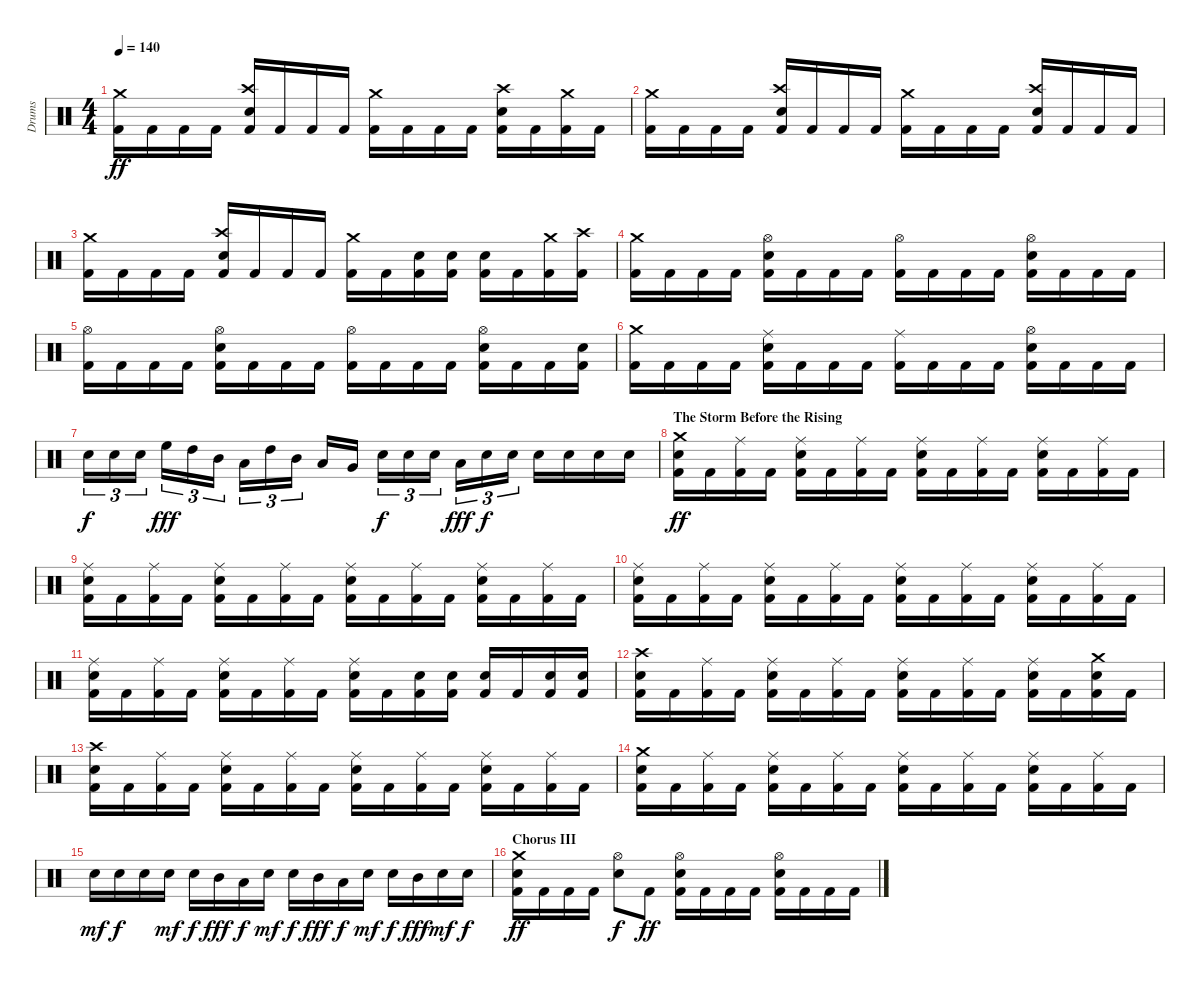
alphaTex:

\track ("Drums" "Drums") {instrument percussion}
\staff {score}
\articulation defaults
\ts (4 4)
\tempo 140
\clef neutral
\ks c
("Crash medium (hit)" "Kick (hit) 2").16{dy ff} "Kick (hit) 2".16 "Kick (hit) 2".16 "Kick (hit) 2".16 ("Crash high (hit)" "Snare (hit) 2" "Kick (hit) 2").16 "Kick (hit) 2".16 "Kick (hit) 2".16 "Kick (hit) 2".16 ("Crash medium (hit)" "Kick (hit) 2").16 "Kick (hit) 2".16 "Kick (hit) 2".16 "Kick (hit) 2".16 ("Crash high (hit)" "Snare (hit) 2" "Kick (hit) 2").16 "Kick (hit) 2".16 ("Crash medium (hit)" "Kick (hit) 2").16 "Kick (hit) 2".16 |
("Crash medium (hit)" "Kick (hit) 2").16 "Kick (hit) 2".16 "Kick (hit) 2".16 "Kick (hit) 2".16 ("Crash high (hit)" "Snare (hit) 2" "Kick (hit) 2").16 "Kick (hit) 2".16 "Kick (hit) 2".16 "Kick (hit) 2".16 ("Crash medium (hit)" "Kick (hit) 2").16 "Kick (hit) 2".16 "Kick (hit) 2".16 "Kick (hit) 2".16 ("Crash high (hit)" "Snare (hit) 2" "Kick (hit) 2").16 "Kick (hit) 2".16 "Kick (hit) 2".16 "Kick (hit) 2".16 |
("Crash medium (hit)" "Kick (hit) 2").16 "Kick (hit) 2".16 "Kick (hit) 2".16 "Kick (hit) 2".16 ("Crash high (hit)" "Snare (hit) 2" "Kick (hit) 2").16 "Kick (hit) 2".16 "Kick (hit) 2".16 "Kick (hit) 2".16 ("Crash medium (hit)" "Kick (hit) 2").16 "Kick (hit) 2".16 ("Snare (hit) 2" "Kick (hit) 2").16 ("Snare (hit) 2" "Kick (hit) 2").16 ("Snare (hit) 2" "Kick (hit) 2").16 "Kick (hit) 2".16 ("Crash medium (hit)" "Kick (hit) 2").16 ("Crash high (hit)" "Kick (hit) 2").16 |
("Crash medium (hit)" "Kick (hit) 2").16 "Kick (hit) 2".16 "Kick (hit) 2".16 "Kick (hit) 2".16 ("Hi-Hat (open)" "Snare (hit) 2" "Kick (hit) 2").16 "Kick (hit) 2".16 "Kick (hit) 2".16 "Kick (hit) 2".16 ("Hi-Hat (open)" "Kick (hit) 2").16 "Kick (hit) 2".16 "Kick (hit) 2".16 "Kick (hit) 2".16 ("Hi-Hat (open)" "Snare (hit) 2" "Kick (hit) 2").16 "Kick (hit) 2".16 "Kick (hit) 2".16 "Kick (hit) 2".16 |
("Hi-Hat (open)" "Kick (hit) 2").16 "Kick (hit) 2".16 "Kick (hit) 2".16 "Kick (hit) 2".16 ("Hi-Hat (open)" "Snare (hit) 2" "Kick (hit) 2").16 "Kick (hit) 2".16 "Kick (hit) 2".16 "Kick (hit) 2".16 ("Hi-Hat (open)" "Kick (hit) 2").16 "Kick (hit) 2".16 "Kick (hit) 2".16 "Kick (hit) 2".16 ("Hi-Hat (open)" "Snare (hit) 2" "Kick (hit) 2").16 "Kick (hit) 2".16 "Kick (hit) 2".16 ("Snare (hit) 2" "Kick (hit) 2").16 |
("Crash medium (hit)" "Kick (hit) 2").16 "Kick (hit) 2".16 "Kick (hit) 2".16 "Kick (hit) 2".16 ("Ride (middle)" "Snare (hit) 2" "Kick (hit) 2").16 "Kick (hit) 2".16 "Kick (hit) 2".16 "Kick (hit) 2".16 ("Ride (middle)" "Kick (hit) 2").16 "Kick (hit) 2".16 "Kick (hit) 2".16 "Kick (hit) 2".16 ("Hi-Hat (open)" "Snare (hit) 2" "Kick (hit) 2").16 "Kick (hit) 2".16 "Kick (hit) 2".16 "Kick (hit) 2".16 |
"Snare (hit) 2".16{tu (3 2) dy f} "Snare (hit) 2".16{tu (3 2)} "Snare (hit) 2".16{tu (3 2)} "High Floor Tom (hit)".16{tu (3 2) dy fff} "High Tom (hit)".16{tu (3 2)} "Mid Tom (hit)".16{tu (3 2)} "Low Tom (hit)".16{tu (3 2)} "High Tom (hit)".16{tu (3 2)} "Mid Tom (hit)".16{tu (3 2)} "Low Tom (hit)".16 "Very Low Tom (hit)".16 "Snare (hit) 2".16{tu (3 2) dy f} "Snare (hit) 2".16{tu (3 2)} "Snare (hit) 2".16{tu (3 2)} "Low Tom (hit)".16{tu (3 2) dy fff} "Snare (hit) 2".16{tu (3 2) dy f} "Snare (hit) 2".16{tu (3 2)} "Snare (hit) 2".16 "Snare (hit) 2".16 "Snare (hit) 2".16 "Snare (hit) 2".16 |
\section ("" "The Storm Before the Rising")
("Crash medium (hit)" "Snare (hit) 2" "Kick (hit) 2").16{dy ff} "Kick (hit) 2".16 ("Ride (middle)" "Kick (hit) 2").16 "Kick (hit) 2".16 ("Ride (middle)" "Snare (hit) 2" "Kick (hit) 2").16 "Kick (hit) 2".16 ("Ride (middle)" "Kick (hit) 2").16 "Kick (hit) 2".16 ("Ride (middle)" "Snare (hit) 2" "Kick (hit) 2").16 "Kick (hit) 2".16 ("Ride (middle)" "Kick (hit) 2").16 "Kick (hit) 2".16 ("Ride (middle)" "Snare (hit) 2" "Kick (hit) 2").16 "Kick (hit) 2".16 ("Ride (middle)" "Kick (hit) 2").16 "Kick (hit) 2".16 |
("Ride (middle)" "Snare (hit) 2" "Kick (hit) 2").16 "Kick (hit) 2".16 ("Ride (middle)" "Kick (hit) 2").16 "Kick (hit) 2".16 ("Ride (middle)" "Snare (hit) 2" "Kick (hit) 2").16 "Kick (hit) 2".16 ("Ride (middle)" "Kick (hit) 2").16 "Kick (hit) 2".16 ("Ride (middle)" "Snare (hit) 2" "Kick (hit) 2").16 "Kick (hit) 2".16 ("Ride (middle)" "Kick (hit) 2").16 "Kick (hit) 2".16 ("Ride (middle)" "Snare (hit) 2" "Kick (hit) 2").16 "Kick (hit) 2".16 ("Ride (middle)" "Kick (hit) 2").16 "Kick (hit) 2".16 |
("Ride (middle)" "Snare (hit) 2" "Kick (hit) 2").16 "Kick (hit) 2".16 ("Ride (middle)" "Kick (hit) 2").16 "Kick (hit) 2".16 ("Ride (middle)" "Snare (hit) 2" "Kick (hit) 2").16 "Kick (hit) 2".16 ("Ride (middle)" "Kick (hit) 2").16 "Kick (hit) 2".16 ("Ride (middle)" "Snare (hit) 2" "Kick (hit) 2").16 "Kick (hit) 2".16 ("Ride (middle)" "Kick (hit) 2").16 "Kick (hit) 2".16 ("Ride (middle)" "Snare (hit) 2" "Kick (hit) 2").16 "Kick (hit) 2".16 ("Ride (middle)" "Kick (hit) 2").16 "Kick (hit) 2".16 |
("Ride (middle)" "Snare (hit) 2" "Kick (hit) 2").16 "Kick (hit) 2".16 ("Ride (middle)" "Kick (hit) 2").16 "Kick (hit) 2".16 ("Ride (middle)" "Snare (hit) 2" "Kick (hit) 2").16 "Kick (hit) 2".16 ("Ride (middle)" "Kick (hit) 2").16 "Kick (hit) 2".16 ("Ride (middle)" "Snare (hit) 2" "Kick (hit) 2").16 "Kick (hit) 2".16 ("Snare (hit) 2" "Kick (hit) 2").16 ("Snare (hit) 2" "Kick (hit) 2").16 ("Snare (hit) 2" "Kick (hit) 2").16 "Kick (hit) 2".16 ("Snare (hit) 2" "Kick (hit) 2").16 ("Snare (hit) 2" "Kick (hit) 2").16 |
("Crash high (hit)" "Snare (hit) 2" "Kick (hit) 2").16 "Kick (hit) 2".16 ("Ride (middle)" "Kick (hit) 2").16 "Kick (hit) 2".16 ("Ride (middle)" "Snare (hit) 2" "Kick (hit) 2").16 "Kick (hit) 2".16 ("Ride (middle)" "Kick (hit) 2").16 "Kick (hit) 2".16 ("Ride (middle)" "Snare (hit) 2" "Kick (hit) 2").16 "Kick (hit) 2".16 ("Ride (middle)" "Kick (hit) 2").16 "Kick (hit) 2".16 ("Ride (middle)" "Snare (hit) 2" "Kick (hit) 2").16 "Kick (hit) 2".16 ("Crash medium (hit)" "Snare (hit) 2" "Kick (hit) 2").16 "Kick (hit) 2".16 |
("Crash high (hit)" "Snare (hit) 2" "Kick (hit) 2").16 "Kick (hit) 2".16 ("Ride (middle)" "Kick (hit) 2").16 "Kick (hit) 2".16 ("Ride (middle)" "Snare (hit) 2" "Kick (hit) 2").16 "Kick (hit) 2".16 ("Ride (middle)" "Kick (hit) 2").16 "Kick (hit) 2".16 ("Ride (middle)" "Snare (hit) 2" "Kick (hit) 2").16 "Kick (hit) 2".16 ("Ride (middle)" "Kick (hit) 2").16 "Kick (hit) 2".16 ("Ride (middle)" "Snare (hit) 2" "Kick (hit) 2").16 "Kick (hit) 2".16 ("Ride (middle)" "Kick (hit) 2").16 "Kick (hit) 2".16 |
("Crash medium (hit)" "Snare (hit) 2" "Kick (hit) 2").16 "Kick (hit) 2".16 ("Ride (middle)" "Kick (hit) 2").16 "Kick (hit) 2".16 ("Ride (middle)" "Snare (hit) 2" "Kick (hit) 2").16 "Kick (hit) 2".16 ("Ride (middle)" "Kick (hit) 2").16 "Kick (hit) 2".16 ("Ride (middle)" "Snare (hit) 2" "Kick (hit) 2").16 "Kick (hit) 2".16 ("Ride (middle)" "Kick (hit) 2").16 "Kick (hit) 2".16 ("Ride (middle)" "Snare (hit) 2" "Kick (hit) 2").16 "Kick (hit) 2".16 ("Ride (middle)" "Kick (hit) 2").16 "Kick (hit) 2".16 |
"Snare (hit) 2".16{dy mf} "Snare (hit) 2".16{dy f} "Snare (hit) 2".16 "Snare (hit) 2".16{dy mf} "Snare (hit) 2".16{dy f} "Mid Tom (hit)".16{dy fff} "Low Tom (hit)".16{dy f} "Snare (hit) 2".16{dy mf} "Snare (hit) 2".16{dy f} "Mid Tom (hit)".16{dy fff} "Low Tom (hit)".16{dy f} "Snare (hit) 2".16{dy mf} "Snare (hit) 2".16{dy f} "Mid Tom (hit)".16{dy fff} "Snare (hit) 2".16{dy mf} "Snare (hit) 2".16{dy f} |
\section ("" "Chorus III")
("Crash medium (hit)" "Snare (hit) 2" "Kick (hit) 2").16{dy ff} "Kick (hit) 2".16 "Kick (hit) 2".16 "Kick (hit) 2".16 ("Hi-Hat (open)" "Snare (hit) 2").8{dy f} "Kick (hit) 2".8{dy ff} ("Hi-Hat (open)" "Snare (hit) 2" "Kick (hit) 2").16 "Kick (hit) 2".16 "Kick (hit) 2".16 "Kick (hit) 2".16 ("Hi-Hat (open)" "Snare (hit) 2" "Kick (hit) 2").16 "Kick (hit) 2".16 "Kick (hit) 2".16 "Kick (hit) 2".16
